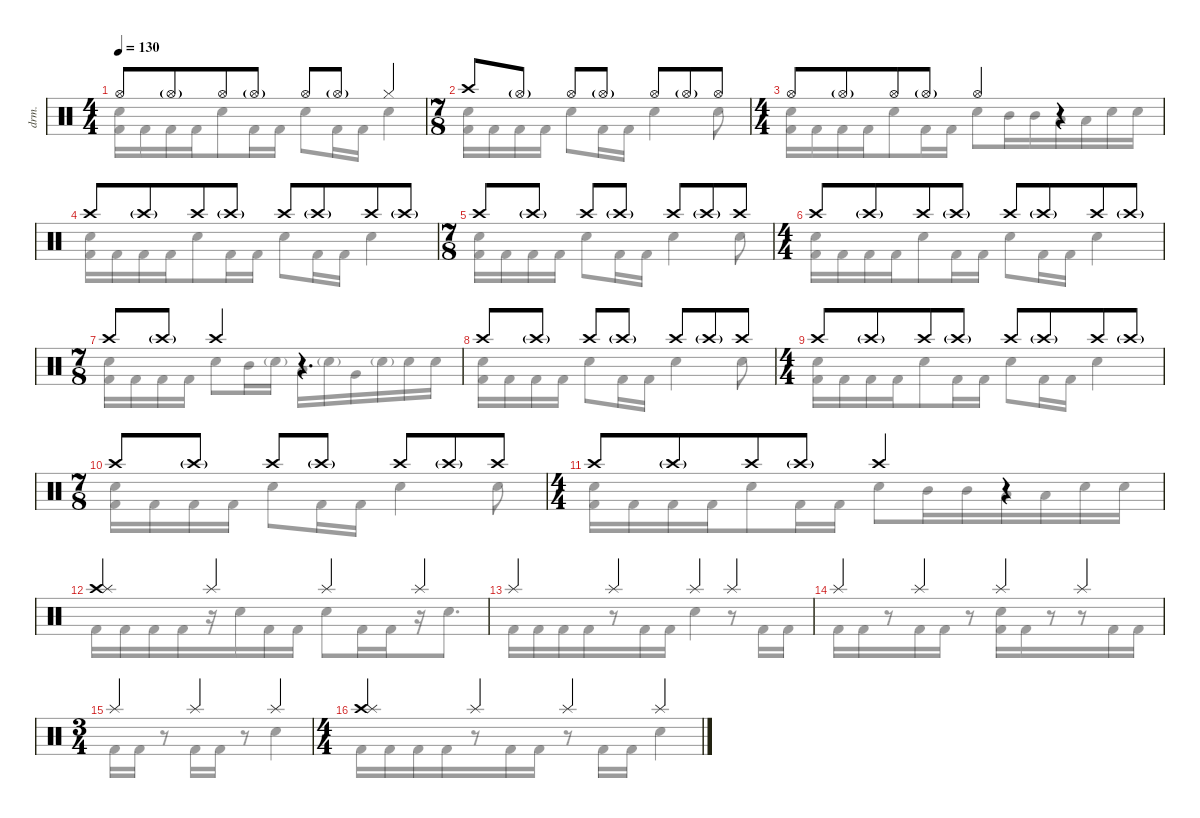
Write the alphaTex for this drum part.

\defaultSystemsLayout 4
\hideDynamics
\bracketExtendMode nobrackets
\otherSystemsTrackNameOrientation horizontal
\track ("B. Richardson Drums" "drm.") {instrument percussion}
\staff {score}
\articulation defaults
\voice
\ts (4 4)
\beaming (8 4 4)
\tempo 130
\clef neutral
\ks c "Hi-Hat (open)".8{dy mf beam Up} "Hi-Hat (open)"{g}.8{beam Up} "Hi-Hat (open)".8{beam Up} "Hi-Hat (open)"{g}.8{beam Up} "Hi-Hat (open)".8{beam Up} "Hi-Hat (open)"{g}.8{beam Up} "Hi-Hat (closed)".4{beam Up}
|
\ts (7 8)
\beaming (8 2 2 3)
"Crash high (hit)".8{beam Up} "Hi-Hat (open)"{g}.8{beam Up} "Hi-Hat (open)".8{beam Up} "Hi-Hat (open)"{g}.8{beam Up} "Hi-Hat (open)".8{beam Up} "Hi-Hat (open)"{g}.8{beam Up} "Hi-Hat (open)".8{beam Up} |
\ts (4 4)
\beaming (8 4 4)
"Hi-Hat (open)".8{beam Up} "Hi-Hat (open)"{g}.8{beam Up} "Hi-Hat (open)".8{beam Up} "Hi-Hat (open)"{g}.8{beam Up} "Hi-Hat (open)".4{beam Up} r.4{beam Up} |
"Crash high (hit)".8{beam Up} "Crash high (hit)"{g}.8{beam Up} "Crash high (hit)".8{beam Up} "Crash high (hit)"{g}.8{beam Up} "Crash high (hit)".8{beam Up} "Crash high (hit)"{g}.8{beam Up} "Crash high (hit)".8{beam Up} "Crash high (hit)"{g}.8{beam Up} |
\ts (7 8)
\beaming (8 2 2 3)
"Crash high (hit)".8{beam Up} "Crash high (hit)"{g}.8{beam Up} "Crash high (hit)".8{beam Up} "Crash high (hit)"{g}.8{beam Up} "Crash high (hit)".8{beam Up} "Crash high (hit)"{g}.8{beam Up} "Crash high (hit)".8{beam Up} |
\ts (4 4)
\beaming (8 4 4)
"Crash high (hit)".8{beam Up} "Crash high (hit)"{g}.8{beam Up} "Crash high (hit)".8{beam Up} "Crash high (hit)"{g}.8{beam Up} "Crash high (hit)".8{beam Up} "Crash high (hit)"{g}.8{beam Up} "Crash high (hit)".8{beam Up} "Crash high (hit)"{g}.8{beam Up} |
\ts (7 8)
\beaming (8 2 2 3)
"Crash high (hit)".8{beam Up} "Crash high (hit)"{g}.8{beam Up} "Crash high (hit)".4{beam Up} r.4{d beam Up} |
"Crash high (hit)".8{beam Up} "Crash high (hit)"{g}.8{beam Up} "Crash high (hit)".8{beam Up} "Crash high (hit)"{g}.8{beam Up} "Crash high (hit)".8{beam Up} "Crash high (hit)"{g}.8{beam Up} "Crash high (hit)".8{beam Up} |
\ts (4 4)
\beaming (8 4 4)
"Crash high (hit)".8{beam Up} "Crash high (hit)"{g}.8{beam Up} "Crash high (hit)".8{beam Up} "Crash high (hit)"{g}.8{beam Up} "Crash high (hit)".8{beam Up} "Crash high (hit)"{g}.8{beam Up} "Crash high (hit)".8{beam Up} "Crash high (hit)"{g}.8{beam Up} |
\ts (7 8)
\beaming (8 2 2 3)
"Crash high (hit)".8{beam Up} "Crash high (hit)"{g}.8{beam Up} "Crash high (hit)".8{beam Up} "Crash high (hit)"{g}.8{beam Up} "Crash high (hit)".8{beam Up} "Crash high (hit)"{g}.8{beam Up} "Crash high (hit)".8{beam Up} |
\ts (4 4)
\beaming (8 4 4)
"Crash high (hit)".8{beam Up} "Crash high (hit)"{g}.8{beam Up} "Crash high (hit)".8{beam Up} "Crash high (hit)"{g}.8{beam Up} "Crash high (hit)".4{beam Up} r.4{beam Up} |
("Crash high (hit)" "Splash (hit)").4{dy f beam Up} "Splash (hit)".4{beam Up} "Splash (hit)".4{beam Up} "Splash (hit)".4{beam Up} |
"Splash (hit)".4{beam Up} "Splash (hit)".4{beam Up} "Splash (hit)".4{beam Up} "Splash (hit)".4{beam Up} |
"Splash (hit)".4{beam Up} "Splash (hit)".4{beam Up} "Splash (hit)".4{beam Up} "Splash (hit)".4{beam Up} |
\ts (3 4)
\beaming (8 2 2 2)
"Splash (hit)".4{beam Up} "Splash (hit)".4{beam Up} "Splash (hit)".4{beam Up} |
\ts (4 4)
\beaming (8 4 4)
("Crash high (hit)" "Splash (hit)").4{beam Up} "Splash (hit)".4{beam Up} "Splash (hit)".4{beam Up} "Splash (hit)".4{beam Up}
\voice
\clef neutral
\ottava regular
\simile none
\ks c
("Snare (hit) 2" "Kick (hit) 2").16{dy fff beam Down} "Kick (hit) 2".16{beam Down} "Kick (hit) 2".16{beam Down} "Kick (hit) 2".16{beam Down} "Snare (hit) 2".8{beam Down} "Kick (hit) 2".16{beam Down} "Kick (hit) 2".16{beam Down} "Snare (hit) 2".8{beam Down} "Kick (hit) 2".16{beam Down} "Kick (hit) 2".16{beam Down} "Snare (hit) 2".4{beam Down} |
("Snare (hit) 2" "Kick (hit) 2").16{beam Down} "Kick (hit) 2".16{beam Down} "Kick (hit) 2".16{beam Down} "Kick (hit) 2".16{beam Down} "Snare (hit) 2".8{beam Down} "Kick (hit) 2".16{beam Down} "Kick (hit) 2".16{beam Down} "Snare (hit) 2".4{beam Down} "Snare (hit) 2".8{beam Down} |
("Snare (hit) 2" "Kick (hit) 2").16{beam Down} "Kick (hit) 2".16{beam Down} "Kick (hit) 2".16{beam Down} "Kick (hit) 2".16{beam Down} "Snare (hit) 2".8{beam Down} "Kick (hit) 2".16{beam Down} "Kick (hit) 2".16{beam Down} "Snare (hit) 2".8{beam Down} "Mid Tom (hit)".16{beam Down} "Mid Tom (hit)".16{beam Down} "Low Tom (hit)".16{beam Down} "Low Tom (hit)".16{beam Down} "Snare (hit) 2".16{beam Down} "Snare (hit) 2".16{beam Down} |
("Snare (hit) 2" "Kick (hit) 2").16{beam Down} "Kick (hit) 2".16{beam Down} "Kick (hit) 2".16{beam Down} "Kick (hit) 2".16{beam Down} "Snare (hit) 2".8{beam Down} "Kick (hit) 2".16{beam Down} "Kick (hit) 2".16{beam Down} "Snare (hit) 2".8{beam Down} "Kick (hit) 2".16{beam Down} "Kick (hit) 2".16{beam Down} "Snare (hit) 2".4{beam Down} |
("Snare (hit) 2" "Kick (hit) 2").16{beam Down} "Kick (hit) 2".16{beam Down} "Kick (hit) 2".16{beam Down} "Kick (hit) 2".16{beam Down} "Snare (hit) 2".8{beam Down} "Kick (hit) 2".16{beam Down} "Kick (hit) 2".16{beam Down} "Snare (hit) 2".4{beam Down} "Snare (hit) 2".8{beam Down} |
("Snare (hit) 2" "Kick (hit) 2").16{beam Down} "Kick (hit) 2".16{beam Down} "Kick (hit) 2".16{beam Down} "Kick (hit) 2".16{beam Down} "Snare (hit) 2".8{beam Down} "Kick (hit) 2".16{beam Down} "Kick (hit) 2".16{beam Down} "Snare (hit) 2".8{beam Down} "Kick (hit) 2".16{beam Down} "Kick (hit) 2".16{beam Down} "Snare (hit) 2".4{beam Down} |
("Snare (hit) 2" "Kick (hit) 2").16{beam Down} "Kick (hit) 2".16{beam Down} "Kick (hit) 2".16{beam Down} "Kick (hit) 2".16{beam Down} "Snare (hit) 2".8{beam Down} "Mid Tom (hit)".16{beam Down} "Snare (hit) 2"{g}.16{dy mf beam Down} "Low Tom (hit)".16{dy fff beam Down} "Snare (hit) 2"{g}.16{dy mf beam Down} "Very Low Tom (hit)".16{dy fff beam Down} "Snare (hit) 2"{g}.16{dy mf beam Down} "Snare (hit) 2".16{beam Down} "Snare (hit) 2".16{dy f beam Down} |
("Snare (hit) 2" "Kick (hit) 2").16{dy fff beam Down} "Kick (hit) 2".16{beam Down} "Kick (hit) 2".16{beam Down} "Kick (hit) 2".16{beam Down} "Snare (hit) 2".8{beam Down} "Kick (hit) 2".16{beam Down} "Kick (hit) 2".16{beam Down} "Snare (hit) 2".4{beam Down} "Snare (hit) 2".8{beam Down} |
("Snare (hit) 2" "Kick (hit) 2").16{beam Down} "Kick (hit) 2".16{beam Down} "Kick (hit) 2".16{beam Down} "Kick (hit) 2".16{beam Down} "Snare (hit) 2".8{beam Down} "Kick (hit) 2".16{beam Down} "Kick (hit) 2".16{beam Down} "Snare (hit) 2".8{beam Down} "Kick (hit) 2".16{beam Down} "Kick (hit) 2".16{beam Down} "Snare (hit) 2".4{beam Down} |
("Snare (hit) 2" "Kick (hit) 2").16{beam Down} "Kick (hit) 2".16{beam Down} "Kick (hit) 2".16{beam Down} "Kick (hit) 2".16{beam Down} "Snare (hit) 2".8{beam Down} "Kick (hit) 2".16{beam Down} "Kick (hit) 2".16{beam Down} "Snare (hit) 2".4{beam Down} "Snare (hit) 2".8{beam Down} |
("Snare (hit) 2" "Kick (hit) 2").16{beam Down} "Kick (hit) 2".16{beam Down} "Kick (hit) 2".16{beam Down} "Kick (hit) 2".16{beam Down} "Snare (hit) 2".8{beam Down} "Kick (hit) 2".16{beam Down} "Kick (hit) 2".16{beam Down} "Snare (hit) 2".8{beam Down} "Mid Tom (hit)".16{beam Down} "Mid Tom (hit)".16{beam Down} "Low Tom (hit)".16{beam Down} "Low Tom (hit)".16{beam Down} "Snare (hit) 2".16{beam Down} "Snare (hit) 2".16{beam Down} |
"Kick (hit) 2".16{beam Down} "Kick (hit) 2".16{beam Down} "Kick (hit) 2".16{beam Down} "Kick (hit) 2".16{beam Down} r.16{beam Down} "Snare (hit) 2".16{dy f beam Down} "Kick (hit) 2".16{dy fff beam Down} "Kick (hit) 2".16{beam Down} "Snare (hit) 2".8{beam Down} "Kick (hit) 2".16{beam Down} "Kick (hit) 2".16{beam Down} r.16{beam Down} "Snare (hit) 2".8{d dy f beam Down} |
"Kick (hit) 2".16{dy fff beam Down} "Kick (hit) 2".16{beam Down} "Kick (hit) 2".16{beam Down} "Kick (hit) 2".16{beam Down} r.8{beam Down} "Kick (hit) 2".16{beam Down} "Kick (hit) 2".16{beam Down} "Snare (hit) 2".4{beam Down} r.8{beam Down} "Kick (hit) 2".16{beam Down} "Kick (hit) 2".16{beam Down} |
"Kick (hit) 2".16{beam Down} "Kick (hit) 2".16{beam Down} r.8{beam Down} "Kick (hit) 2".16{beam Down} "Kick (hit) 2".16{beam Down} r.8{beam Down} ("Snare (hit) 2" "Kick (hit) 2").16{beam Down} "Kick (hit) 2".16{beam Down} r.8{beam Down} r.8{beam Down} "Kick (hit) 2".16{beam Down} "Kick (hit) 2".16{beam Down} |
"Kick (hit) 2".16{beam Down} "Kick (hit) 2".16{beam Down} r.8{beam Down} "Kick (hit) 2".16{beam Down} "Kick (hit) 2".16{beam Down} r.8{beam Down} "Snare (hit) 2".4{beam Down} |
"Kick (hit) 2".16{beam Down} "Kick (hit) 2".16{beam Down} "Kick (hit) 2".16{beam Down} "Kick (hit) 2".16{beam Down} r.8{beam Down} "Kick (hit) 2".16{beam Down} "Kick (hit) 2".16{beam Down} r.8{beam Down} "Kick (hit) 2".16{beam Down} "Kick (hit) 2".16{beam Down} "Snare (hit) 2".4{beam Down}
